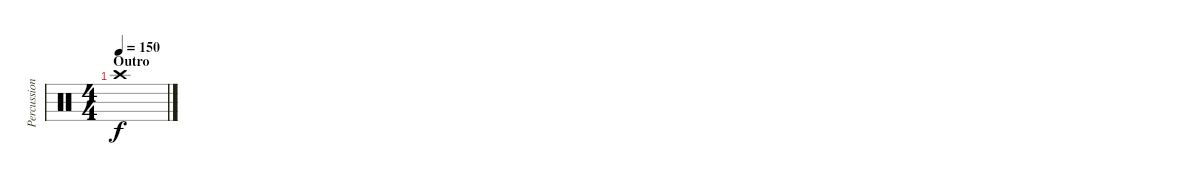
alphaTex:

\track ("Percussion" "Percussion") {instrument percussion}
\staff {score}
\articulation defaults
\ts (4 4)
\section ("" "Outro")
\tempo 150
\clef neutral
\ks c "Crash high (hit)".1{dy f}
